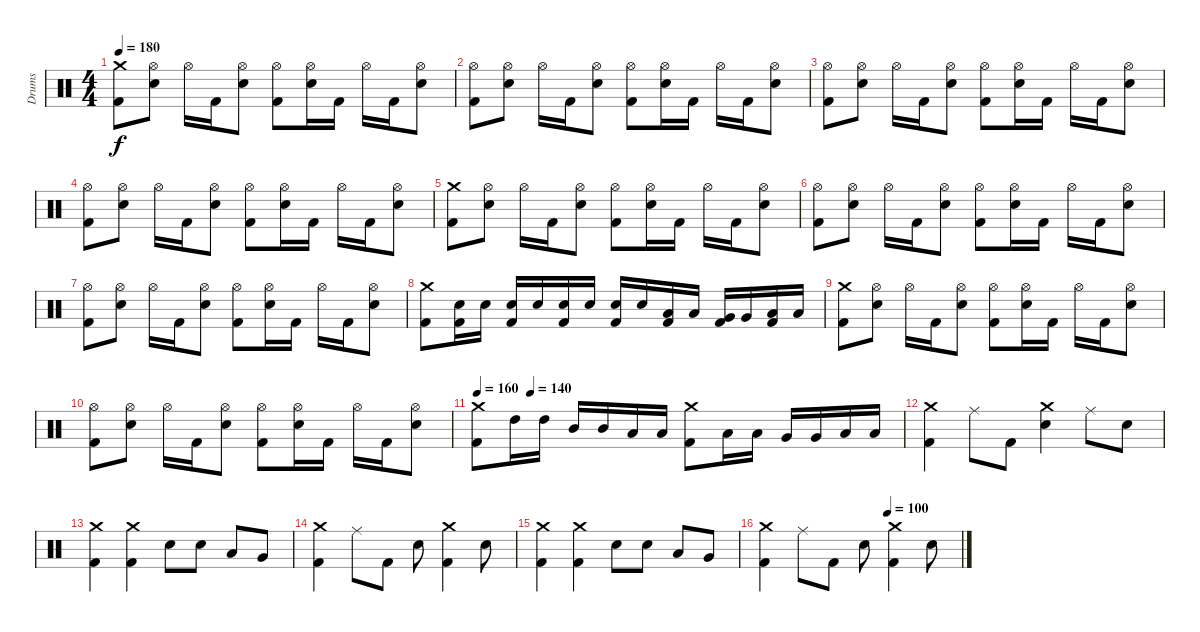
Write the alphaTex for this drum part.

\track ("Drums" "Drums") {instrument percussion}
\staff {score}
\articulation defaults
\ts (4 4)
\tempo 180
\clef neutral
\ks c
("Crash medium (hit)" "Kick (hit) 2").8{dy f} ("Hi-Hat (open)" "Snare (hit) 2").8 "Hi-Hat (open)".16 "Kick (hit) 2".16 ("Hi-Hat (open)" "Snare (hit) 2").8 ("Hi-Hat (open)" "Kick (hit) 2").8 ("Hi-Hat (open)" "Snare (hit) 2").16 "Kick (hit) 2".16 "Hi-Hat (open)".16 "Kick (hit) 2".16 ("Hi-Hat (open)" "Snare (hit) 2").8 |
("Hi-Hat (open)" "Kick (hit) 2").8 ("Hi-Hat (open)" "Snare (hit) 2").8 "Hi-Hat (open)".16 "Kick (hit) 2".16 ("Hi-Hat (open)" "Snare (hit) 2").8 ("Hi-Hat (open)" "Kick (hit) 2").8 ("Hi-Hat (open)" "Snare (hit) 2").16 "Kick (hit) 2".16 "Hi-Hat (open)".16 "Kick (hit) 2".16 ("Hi-Hat (open)" "Snare (hit) 2").8 |
("Hi-Hat (open)" "Kick (hit) 2").8 ("Hi-Hat (open)" "Snare (hit) 2").8 "Hi-Hat (open)".16 "Kick (hit) 2".16 ("Hi-Hat (open)" "Snare (hit) 2").8 ("Hi-Hat (open)" "Kick (hit) 2").8 ("Hi-Hat (open)" "Snare (hit) 2").16 "Kick (hit) 2".16 "Hi-Hat (open)".16 "Kick (hit) 2".16 ("Hi-Hat (open)" "Snare (hit) 2").8 |
("Hi-Hat (open)" "Kick (hit) 2").8 ("Hi-Hat (open)" "Snare (hit) 2").8 "Hi-Hat (open)".16 "Kick (hit) 2".16 ("Hi-Hat (open)" "Snare (hit) 2").8 ("Hi-Hat (open)" "Kick (hit) 2").8 ("Hi-Hat (open)" "Snare (hit) 2").16 "Kick (hit) 2".16 "Hi-Hat (open)".16 "Kick (hit) 2".16 ("Hi-Hat (open)" "Snare (hit) 2").8 |
("Crash medium (hit)" "Kick (hit) 2").8 ("Hi-Hat (open)" "Snare (hit) 2").8 "Hi-Hat (open)".16 "Kick (hit) 2".16 ("Hi-Hat (open)" "Snare (hit) 2").8 ("Hi-Hat (open)" "Kick (hit) 2").8 ("Hi-Hat (open)" "Snare (hit) 2").16 "Kick (hit) 2".16 "Hi-Hat (open)".16 "Kick (hit) 2".16 ("Hi-Hat (open)" "Snare (hit) 2").8 |
("Hi-Hat (open)" "Kick (hit) 2").8 ("Hi-Hat (open)" "Snare (hit) 2").8 "Hi-Hat (open)".16 "Kick (hit) 2".16 ("Hi-Hat (open)" "Snare (hit) 2").8 ("Hi-Hat (open)" "Kick (hit) 2").8 ("Hi-Hat (open)" "Snare (hit) 2").16 "Kick (hit) 2".16 "Hi-Hat (open)".16 "Kick (hit) 2".16 ("Hi-Hat (open)" "Snare (hit) 2").8 |
("Hi-Hat (open)" "Kick (hit) 2").8 ("Hi-Hat (open)" "Snare (hit) 2").8 "Hi-Hat (open)".16 "Kick (hit) 2".16 ("Hi-Hat (open)" "Snare (hit) 2").8 ("Hi-Hat (open)" "Kick (hit) 2").8 ("Hi-Hat (open)" "Snare (hit) 2").16 "Kick (hit) 2".16 "Hi-Hat (open)".16 "Kick (hit) 2".16 ("Hi-Hat (open)" "Snare (hit) 2").8 |
("Crash medium (hit)" "Kick (hit) 2").8 ("Snare (hit) 2" "Kick (hit) 2").16 "Snare (hit) 2".16 ("Snare (hit) 2" "Kick (hit) 2").16 "Snare (hit) 2".16 ("Snare (hit) 2" "Kick (hit) 2").16 "Snare (hit) 2".16 ("Snare (hit) 2" "Kick (hit) 2").16 "Snare (hit) 2".16 ("Low Tom (hit)" "Kick (hit) 2").16 "Low Tom (hit)".16 ("Very Low Tom (hit)" "Kick (hit) 2").16 "Very Low Tom (hit)".16 ("Low Floor Tom (hit)" "Kick (hit) 2").16 "Low Floor Tom (hit)".16 |
("Crash medium (hit)" "Kick (hit) 2").8 ("Hi-Hat (open)" "Snare (hit) 2").8 "Hi-Hat (open)".16 "Kick (hit) 2".16 ("Hi-Hat (open)" "Snare (hit) 2").8 ("Hi-Hat (open)" "Kick (hit) 2").8 ("Hi-Hat (open)" "Snare (hit) 2").16 "Kick (hit) 2".16 "Hi-Hat (open)".16 "Kick (hit) 2".16 ("Hi-Hat (open)" "Snare (hit) 2").8 |
("Hi-Hat (open)" "Kick (hit) 2").8 ("Hi-Hat (open)" "Snare (hit) 2").8 "Hi-Hat (open)".16 "Kick (hit) 2".16 ("Hi-Hat (open)" "Snare (hit) 2").8 ("Hi-Hat (open)" "Kick (hit) 2").8 ("Hi-Hat (open)" "Snare (hit) 2").16 "Kick (hit) 2".16 "Hi-Hat (open)".16 "Kick (hit) 2".16 ("Hi-Hat (open)" "Snare (hit) 2").8 |
\tempo 160
\tempo (140 0.125)
("Crash medium (hit)" "Kick (hit) 2").8 "High Tom (hit)".16 "High Tom (hit)".16 "Mid Tom (hit)".16 "Mid Tom (hit)".16 "Low Tom (hit)".16 "Low Tom (hit)".16 ("Crash medium (hit)" "Kick (hit) 2").8 "Low Tom (hit)".16 "Low Tom (hit)".16 "Very Low Tom (hit)".16 "Very Low Tom (hit)".16 "Low Floor Tom (hit)".16 "Low Floor Tom (hit)".16 |
("Crash medium (hit)" "Kick (hit) 2").4 "Ride (middle)".8 "Kick (hit) 2".8 ("Crash medium (hit)" "Snare (hit) 2").4 "Ride (middle)".8 "Snare (hit) 2".8 |
("Crash medium (hit)" "Kick (hit) 2").4 ("Crash medium (hit)" "Kick (hit) 2").4 "Snare (hit) 2".8 "Snare (hit) 2".8 "Low Tom (hit)".8 "Very Low Tom (hit)".8 |
("Crash medium (hit)" "Kick (hit) 2").4 "Ride (middle)".8 "Kick (hit) 2".8 "Snare (hit) 2".8 ("Crash medium (hit)" "Kick (hit) 2").4 "Snare (hit) 2".8 |
("Crash medium (hit)" "Kick (hit) 2").4 ("Crash medium (hit)" "Kick (hit) 2").4 "Snare (hit) 2".8 "Snare (hit) 2".8 "Low Tom (hit)".8 "Very Low Tom (hit)".8 |
\tempo (100 0.625)
("Crash medium (hit)" "Kick (hit) 2").4 "Ride (middle)".8 "Kick (hit) 2".8 "Snare (hit) 2".8 ("Crash medium (hit)" "Kick (hit) 2").4 "Snare (hit) 2".8
